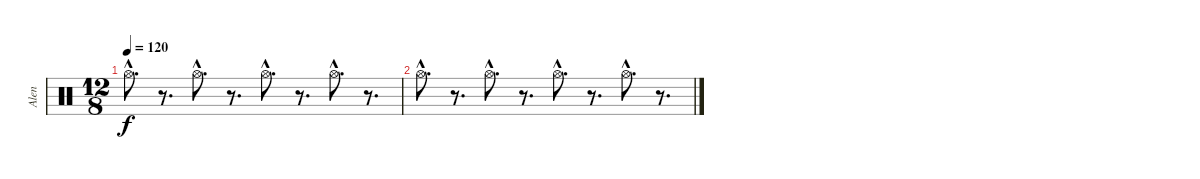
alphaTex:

\track ("Alen" "Alen") {instrument percussion}
\staff {score}
\articulation defaults
\ts (12 8)
\tempo 120
\clef neutral
\ks c "Hi-Hat (open)"{hac}.8{d dy f}
r.8{d} "Hi-Hat (open)"{hac}.8{d} r.8{d} "Hi-Hat (open)"{hac}.8{d} r.8{d} "Hi-Hat (open)"{hac}.8{d} r.8{d} |
"Hi-Hat (open)"{hac}.8{d} r.8{d} "Hi-Hat (open)"{hac}.8{d} r.8{d} "Hi-Hat (open)"{hac}.8{d} r.8{d} "Hi-Hat (open)"{hac}.8{d} r.8{d}
